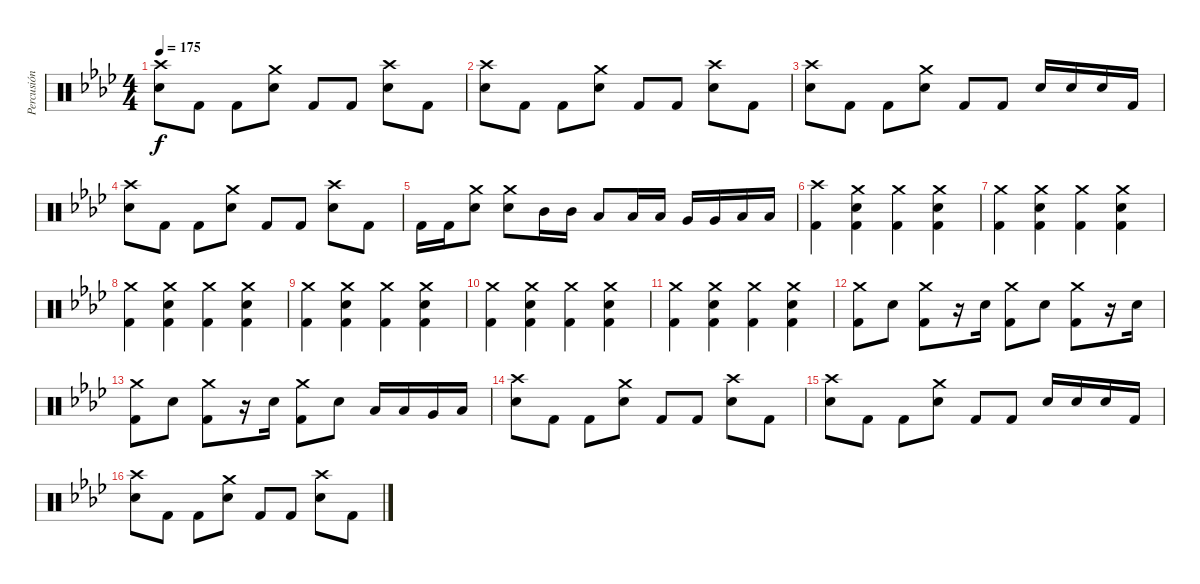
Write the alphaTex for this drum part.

\track ("Percusión" "Percusión") {instrument percussion}
\staff {score}
\articulation defaults
\ts (4 4)
\tempo 175
\clef neutral
\ks fminor
("Snare (hit) 2" "Crash high (hit)").8{dy f} "Kick (hit) 2".8 "Kick (hit) 2".8 ("Snare (hit) 2" "Crash medium (hit)").8 "Kick (hit) 2".8 "Kick (hit) 2".8 ("Snare (hit) 2" "Crash high (hit)").8 "Kick (hit) 2".8 |
("Snare (hit) 2" "Crash high (hit)").8 "Kick (hit) 2".8 "Kick (hit) 2".8 ("Snare (hit) 2" "Crash medium (hit)").8 "Kick (hit) 2".8 "Kick (hit) 2".8 ("Snare (hit) 2" "Crash high (hit)").8 "Kick (hit) 2".8 |
("Snare (hit) 2" "Crash high (hit)").8 "Kick (hit) 2".8 "Kick (hit) 2".8 ("Snare (hit) 2" "Crash medium (hit)").8 "Kick (hit) 2".8 "Kick (hit) 2".8 "Snare (hit) 2".16 "Snare (hit) 2".16 "Snare (hit) 2".16 "Kick (hit) 2".16 |
("Snare (hit) 2" "Crash high (hit)").8 "Kick (hit) 2".8 "Kick (hit) 2".8 ("Snare (hit) 2" "Crash medium (hit)").8 "Kick (hit) 2".8 "Kick (hit) 2".8 ("Snare (hit) 2" "Crash high (hit)").8 "Kick (hit) 2".8 |
"Kick (hit) 2".16 "Kick (hit) 2".16 ("Snare (hit) 2" "Crash medium (hit)").8 ("Snare (hit) 2" "Crash medium (hit)").8 "Mid Tom (hit)".16 "Mid Tom (hit)".16 "Low Tom (hit)".8 "Low Tom (hit)".16 "Low Tom (hit)".16 "Very Low Tom (hit)".16 "Very Low Tom (hit)".16 "Low Floor Tom (hit)".16 "Low Floor Tom (hit)".16 |
("Kick (hit) 2" "Crash high (hit)").4 ("Kick (hit) 2" "Snare (hit) 2" "Crash medium (hit)").4 ("Kick (hit) 2" "Crash medium (hit)").4 ("Kick (hit) 2" "Snare (hit) 2" "Crash medium (hit)").4 |
("Kick (hit) 2" "Crash medium (hit)").4 ("Kick (hit) 2" "Snare (hit) 2" "Crash medium (hit)").4 ("Kick (hit) 2" "Crash medium (hit)").4 ("Kick (hit) 2" "Snare (hit) 2" "Crash medium (hit)").4 |
("Kick (hit) 2" "Crash medium (hit)").4 ("Kick (hit) 2" "Snare (hit) 2" "Crash medium (hit)").4 ("Kick (hit) 2" "Crash medium (hit)").4 ("Kick (hit) 2" "Snare (hit) 2" "Crash medium (hit)").4 |
("Kick (hit) 2" "Crash medium (hit)").4 ("Kick (hit) 2" "Snare (hit) 2" "Crash medium (hit)").4 ("Kick (hit) 2" "Crash medium (hit)").4 ("Kick (hit) 2" "Snare (hit) 2" "Crash medium (hit)").4 |
("Kick (hit) 2" "Crash medium (hit)").4 ("Kick (hit) 2" "Snare (hit) 2" "Crash medium (hit)").4 ("Kick (hit) 2" "Crash medium (hit)").4 ("Kick (hit) 2" "Snare (hit) 2" "Crash medium (hit)").4 |
("Kick (hit) 2" "Crash medium (hit)").4 ("Kick (hit) 2" "Snare (hit) 2" "Crash medium (hit)").4 ("Kick (hit) 2" "Crash medium (hit)").4 ("Kick (hit) 2" "Snare (hit) 2" "Crash medium (hit)").4 |
("Kick (hit) 2" "Crash medium (hit)").8 "Snare (hit) 2".8 ("Kick (hit) 2" "Crash medium (hit)").8 r.16 "Snare (hit) 2".16 ("Kick (hit) 2" "Crash medium (hit)").8 "Snare (hit) 2".8 ("Kick (hit) 2" "Crash medium (hit)").8 r.16 "Snare (hit) 2".16 |
("Kick (hit) 2" "Crash medium (hit)").8 "Snare (hit) 2".8 ("Kick (hit) 2" "Crash medium (hit)").8 r.16 "Snare (hit) 2".16 ("Kick (hit) 2" "Crash medium (hit)").8 "Snare (hit) 2".8 "Low Tom (hit)".16 "Low Tom (hit)".16 "Very Low Tom (hit)".16 "Low Floor Tom (hit)".16 |
("Snare (hit) 2" "Crash high (hit)").8 "Kick (hit) 2".8 "Kick (hit) 2".8 ("Snare (hit) 2" "Crash medium (hit)").8 "Kick (hit) 2".8 "Kick (hit) 2".8 ("Snare (hit) 2" "Crash high (hit)").8 "Kick (hit) 2".8 |
("Snare (hit) 2" "Crash high (hit)").8 "Kick (hit) 2".8 "Kick (hit) 2".8 ("Snare (hit) 2" "Crash medium (hit)").8 "Kick (hit) 2".8 "Kick (hit) 2".8 "Snare (hit) 2".16 "Snare (hit) 2".16 "Snare (hit) 2".16 "Kick (hit) 2".16 |
("Snare (hit) 2" "Crash high (hit)").8 "Kick (hit) 2".8 "Kick (hit) 2".8 ("Snare (hit) 2" "Crash medium (hit)").8 "Kick (hit) 2".8 "Kick (hit) 2".8 ("Snare (hit) 2" "Crash high (hit)").8 "Kick (hit) 2".8
